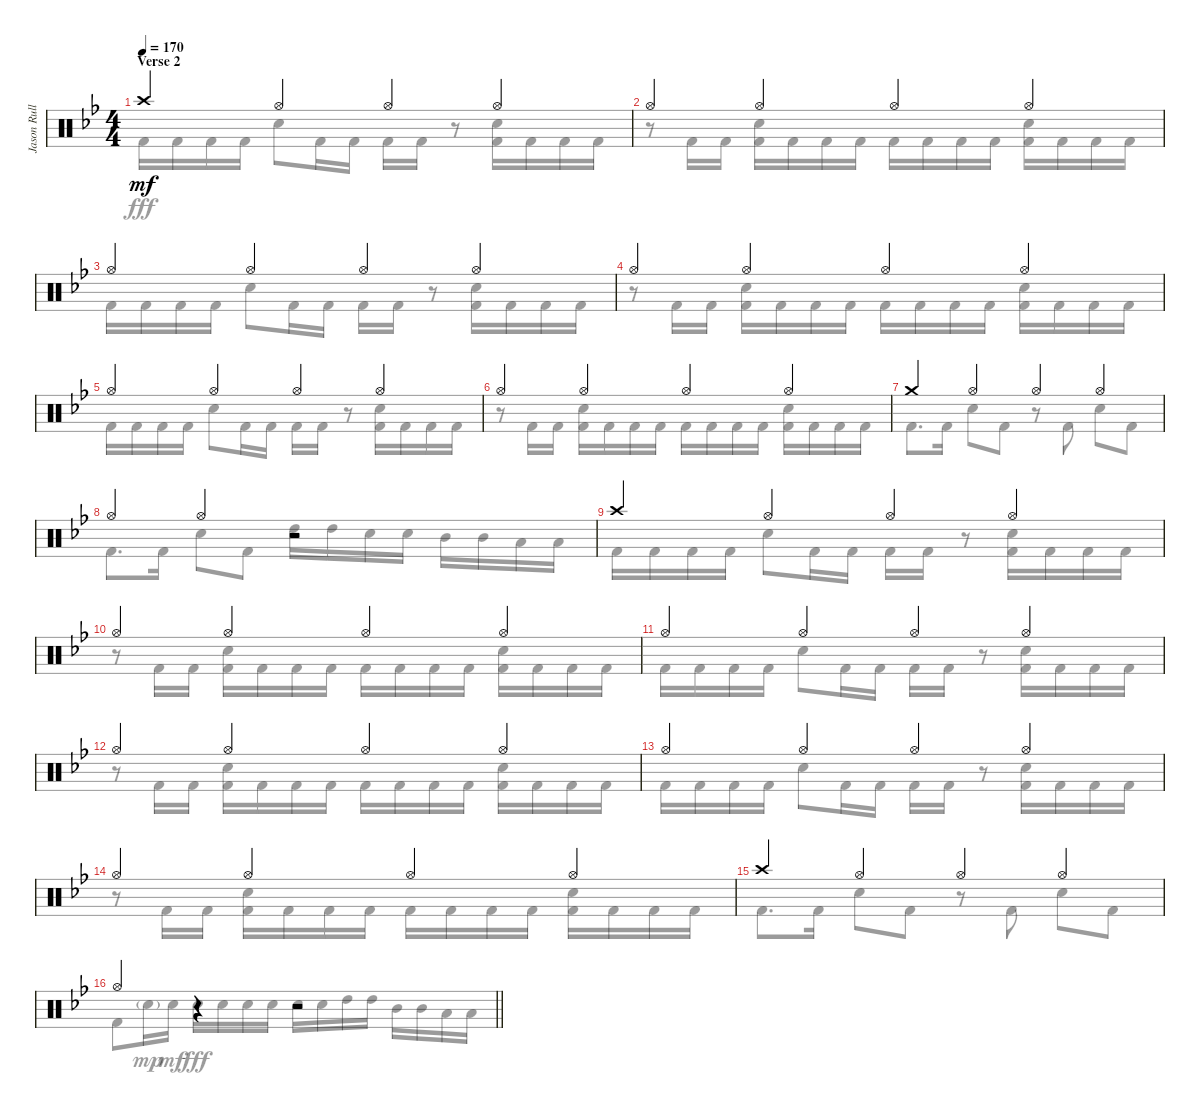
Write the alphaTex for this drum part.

\track ("Jason Rullo Drums" "Jason Rull") {instrument percussion}
\staff {score}
\articulation defaults
\voice
\ts (4 4)
\section ("" "Verse 2")
\tempo 170
\clef neutral
\ks gminor "Crash high (hit)".4{dy mf} "Hi-Hat (open)".4 "Hi-Hat (open)".4 "Hi-Hat (open)".4
|
"Hi-Hat (open)".4 "Hi-Hat (open)".4 "Hi-Hat (open)".4 "Hi-Hat (open)".4 |
"Hi-Hat (open)".4 "Hi-Hat (open)".4 "Hi-Hat (open)".4 "Hi-Hat (open)".4 |
"Hi-Hat (open)".4 "Hi-Hat (open)".4 "Hi-Hat (open)".4 "Hi-Hat (open)".4 |
"Hi-Hat (open)".4 "Hi-Hat (open)".4 "Hi-Hat (open)".4 "Hi-Hat (open)".4 |
"Hi-Hat (open)".4 "Hi-Hat (open)".4 "Hi-Hat (open)".4 "Hi-Hat (open)".4 |
"Crash medium (hit)".4 "Hi-Hat (open)".4 "Hi-Hat (open)".4 "Hi-Hat (open)".4 |
"Hi-Hat (open)".4 "Hi-Hat (open)".4 r.2 |
"Crash high (hit)".4 "Hi-Hat (open)".4 "Hi-Hat (open)".4 "Hi-Hat (open)".4 |
"Hi-Hat (open)".4 "Hi-Hat (open)".4 "Hi-Hat (open)".4 "Hi-Hat (open)".4 |
"Hi-Hat (open)".4 "Hi-Hat (open)".4 "Hi-Hat (open)".4 "Hi-Hat (open)".4 |
"Hi-Hat (open)".4 "Hi-Hat (open)".4 "Hi-Hat (open)".4 "Hi-Hat (open)".4 |
"Hi-Hat (open)".4 "Hi-Hat (open)".4 "Hi-Hat (open)".4 "Hi-Hat (open)".4 |
"Hi-Hat (open)".4 "Hi-Hat (open)".4 "Hi-Hat (open)".4 "Hi-Hat (open)".4 |
"Crash high (hit)".4 "Hi-Hat (open)".4 "Hi-Hat (open)".4 "Hi-Hat (open)".4 |
\barLineRight lightlight "Hi-Hat (open)".4
r.4 r.2
\voice
\clef neutral
\ottava regular
\simile none
\ks gminor "Kick (hit) 2".16{dy fff} "Kick (hit) 2".16 "Kick (hit) 2".16 "Kick (hit) 2".16 "Electric Snare (hit)".8 "Kick (hit) 2".16 "Kick (hit) 2".16 "Kick (hit) 2".16 "Kick (hit) 2".16
r.8 ("Electric Snare (hit)" "Kick (hit) 2").16 "Kick (hit) 2".16 "Kick (hit) 2".16 "Kick (hit) 2".16 |
r.8 "Kick (hit) 2".16 "Kick (hit) 2".16 ("Electric Snare (hit)" "Kick (hit) 2").16 "Kick (hit) 2".16 "Kick (hit) 2".16 "Kick (hit) 2".16 "Kick (hit) 2".16 "Kick (hit) 2".16 "Kick (hit) 2".16 "Kick (hit) 2".16 ("Electric Snare (hit)" "Kick (hit) 2").16 "Kick (hit) 2".16 "Kick (hit) 2".16 "Kick (hit) 2".16 |
"Kick (hit) 2".16 "Kick (hit) 2".16 "Kick (hit) 2".16 "Kick (hit) 2".16 "Electric Snare (hit)".8 "Kick (hit) 2".16 "Kick (hit) 2".16 "Kick (hit) 2".16 "Kick (hit) 2".16 r.8 ("Electric Snare (hit)" "Kick (hit) 2").16 "Kick (hit) 2".16 "Kick (hit) 2".16 "Kick (hit) 2".16 |
r.8 "Kick (hit) 2".16 "Kick (hit) 2".16 ("Electric Snare (hit)" "Kick (hit) 2").16 "Kick (hit) 2".16 "Kick (hit) 2".16 "Kick (hit) 2".16 "Kick (hit) 2".16 "Kick (hit) 2".16 "Kick (hit) 2".16 "Kick (hit) 2".16 ("Electric Snare (hit)" "Kick (hit) 2").16 "Kick (hit) 2".16 "Kick (hit) 2".16 "Kick (hit) 2".16 |
"Kick (hit) 2".16 "Kick (hit) 2".16 "Kick (hit) 2".16 "Kick (hit) 2".16 "Electric Snare (hit)".8 "Kick (hit) 2".16 "Kick (hit) 2".16 "Kick (hit) 2".16 "Kick (hit) 2".16 r.8 ("Electric Snare (hit)" "Kick (hit) 2").16 "Kick (hit) 2".16 "Kick (hit) 2".16 "Kick (hit) 2".16 |
r.8 "Kick (hit) 2".16 "Kick (hit) 2".16 ("Electric Snare (hit)" "Kick (hit) 2").16 "Kick (hit) 2".16 "Kick (hit) 2".16 "Kick (hit) 2".16 "Kick (hit) 2".16 "Kick (hit) 2".16 "Kick (hit) 2".16 "Kick (hit) 2".16 ("Electric Snare (hit)" "Kick (hit) 2").16 "Kick (hit) 2".16 "Kick (hit) 2".16 "Kick (hit) 2".16 |
"Kick (hit) 2".8{d} "Kick (hit) 2".16 "Electric Snare (hit)".8 "Kick (hit) 2".8 r.8 "Kick (hit) 2".8 "Electric Snare (hit)".8 "Kick (hit) 2".8 |
"Kick (hit) 2".8{d} "Kick (hit) 2".16 "Electric Snare (hit)".8 "Kick (hit) 2".8 "High Tom (hit)".16 "High Tom (hit)".16 "Electric Snare (hit)".16 "Electric Snare (hit)".16 "Mid Tom (hit)".16 "Mid Tom (hit)".16 "Low Tom (hit)".16 "Low Tom (hit)".16 |
"Kick (hit) 2".16 "Kick (hit) 2".16 "Kick (hit) 2".16 "Kick (hit) 2".16 "Electric Snare (hit)".8 "Kick (hit) 2".16 "Kick (hit) 2".16 "Kick (hit) 2".16 "Kick (hit) 2".16 r.8 ("Electric Snare (hit)" "Kick (hit) 2").16 "Kick (hit) 2".16 "Kick (hit) 2".16 "Kick (hit) 2".16 |
r.8 "Kick (hit) 2".16 "Kick (hit) 2".16 ("Electric Snare (hit)" "Kick (hit) 2").16 "Kick (hit) 2".16 "Kick (hit) 2".16 "Kick (hit) 2".16 "Kick (hit) 2".16 "Kick (hit) 2".16 "Kick (hit) 2".16 "Kick (hit) 2".16 ("Electric Snare (hit)" "Kick (hit) 2").16 "Kick (hit) 2".16 "Kick (hit) 2".16 "Kick (hit) 2".16 |
"Kick (hit) 2".16 "Kick (hit) 2".16 "Kick (hit) 2".16 "Kick (hit) 2".16 "Electric Snare (hit)".8 "Kick (hit) 2".16 "Kick (hit) 2".16 "Kick (hit) 2".16 "Kick (hit) 2".16 r.8 ("Electric Snare (hit)" "Kick (hit) 2").16 "Kick (hit) 2".16 "Kick (hit) 2".16 "Kick (hit) 2".16 |
r.8 "Kick (hit) 2".16 "Kick (hit) 2".16 ("Electric Snare (hit)" "Kick (hit) 2").16 "Kick (hit) 2".16 "Kick (hit) 2".16 "Kick (hit) 2".16 "Kick (hit) 2".16 "Kick (hit) 2".16 "Kick (hit) 2".16 "Kick (hit) 2".16 ("Electric Snare (hit)" "Kick (hit) 2").16 "Kick (hit) 2".16 "Kick (hit) 2".16 "Kick (hit) 2".16 |
"Kick (hit) 2".16 "Kick (hit) 2".16 "Kick (hit) 2".16 "Kick (hit) 2".16 "Electric Snare (hit)".8 "Kick (hit) 2".16 "Kick (hit) 2".16 "Kick (hit) 2".16 "Kick (hit) 2".16 r.8 ("Electric Snare (hit)" "Kick (hit) 2").16 "Kick (hit) 2".16 "Kick (hit) 2".16 "Kick (hit) 2".16 |
r.8 "Kick (hit) 2".16 "Kick (hit) 2".16 ("Electric Snare (hit)" "Kick (hit) 2").16 "Kick (hit) 2".16 "Kick (hit) 2".16 "Kick (hit) 2".16 "Kick (hit) 2".16 "Kick (hit) 2".16 "Kick (hit) 2".16 "Kick (hit) 2".16 ("Electric Snare (hit)" "Kick (hit) 2").16 "Kick (hit) 2".16 "Kick (hit) 2".16 "Kick (hit) 2".16 |
"Kick (hit) 2".8{d} "Kick (hit) 2".16 "Electric Snare (hit)".8 "Kick (hit) 2".8 r.8 "Kick (hit) 2".8 "Electric Snare (hit)".8 "Kick (hit) 2".8 |
\barLineRight lightlight "Kick (hit) 2".8 "Electric Snare (hit)"{g}.16{dy mp} "Electric Snare (hit)".16{dy mf} "Electric Snare (hit)".16{dy fff} "Electric Snare (hit)".16 "Electric Snare (hit)".16 "Electric Snare (hit)".16 "Electric Snare (hit)".16 "Electric Snare (hit)".16 "High Tom (hit)".16 "High Tom (hit)".16 "Mid Tom (hit)".16 "Mid Tom (hit)".16 "Low Tom (hit)".16 "Low Tom (hit)".16
